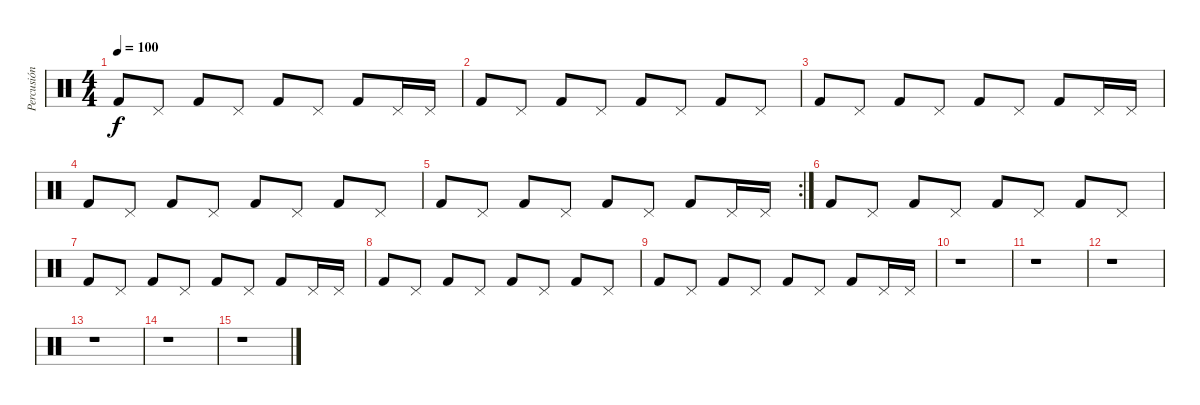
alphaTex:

\track ("Percusión" "Percusión") {instrument percussion}
\staff {score}
\articulation defaults
\ts (4 4)
\tempo 100
\clef neutral
\ks c "Kick (hit) 2".8{dy f} "Pedal Hi-Hat (hit)".8 "Kick (hit) 2".8 "Pedal Hi-Hat (hit)".8 "Kick (hit) 2".8 "Pedal Hi-Hat (hit)".8 "Kick (hit) 2".8 "Pedal Hi-Hat (hit)".16 "Pedal Hi-Hat (hit)".16
|
"Kick (hit) 2".8 "Pedal Hi-Hat (hit)".8 "Kick (hit) 2".8 "Pedal Hi-Hat (hit)".8 "Kick (hit) 2".8 "Pedal Hi-Hat (hit)".8 "Kick (hit) 2".8 "Pedal Hi-Hat (hit)".8 |
"Kick (hit) 2".8 "Pedal Hi-Hat (hit)".8 "Kick (hit) 2".8 "Pedal Hi-Hat (hit)".8 "Kick (hit) 2".8 "Pedal Hi-Hat (hit)".8 "Kick (hit) 2".8 "Pedal Hi-Hat (hit)".16 "Pedal Hi-Hat (hit)".16 |
"Kick (hit) 2".8 "Pedal Hi-Hat (hit)".8 "Kick (hit) 2".8 "Pedal Hi-Hat (hit)".8 "Kick (hit) 2".8 "Pedal Hi-Hat (hit)".8 "Kick (hit) 2".8 "Pedal Hi-Hat (hit)".8 |
\rc 2 "Kick (hit) 2".8 "Pedal Hi-Hat (hit)".8 "Kick (hit) 2".8 "Pedal Hi-Hat (hit)".8 "Kick (hit) 2".8 "Pedal Hi-Hat (hit)".8 "Kick (hit) 2".8 "Pedal Hi-Hat (hit)".16 "Pedal Hi-Hat (hit)".16
|
"Kick (hit) 2".8 "Pedal Hi-Hat (hit)".8 "Kick (hit) 2".8 "Pedal Hi-Hat (hit)".8 "Kick (hit) 2".8 "Pedal Hi-Hat (hit)".8 "Kick (hit) 2".8 "Pedal Hi-Hat (hit)".8 |
"Kick (hit) 2".8 "Pedal Hi-Hat (hit)".8 "Kick (hit) 2".8 "Pedal Hi-Hat (hit)".8 "Kick (hit) 2".8 "Pedal Hi-Hat (hit)".8 "Kick (hit) 2".8 "Pedal Hi-Hat (hit)".16 "Pedal Hi-Hat (hit)".16 |
"Kick (hit) 2".8 "Pedal Hi-Hat (hit)".8 "Kick (hit) 2".8 "Pedal Hi-Hat (hit)".8 "Kick (hit) 2".8 "Pedal Hi-Hat (hit)".8 "Kick (hit) 2".8 "Pedal Hi-Hat (hit)".8 |
"Kick (hit) 2".8 "Pedal Hi-Hat (hit)".8 "Kick (hit) 2".8 "Pedal Hi-Hat (hit)".8 "Kick (hit) 2".8 "Pedal Hi-Hat (hit)".8 "Kick (hit) 2".8 "Pedal Hi-Hat (hit)".16 "Pedal Hi-Hat (hit)".16 |
r.1 |
r.1 |
r.1 |
r.1 |
r.1 |
r.1
